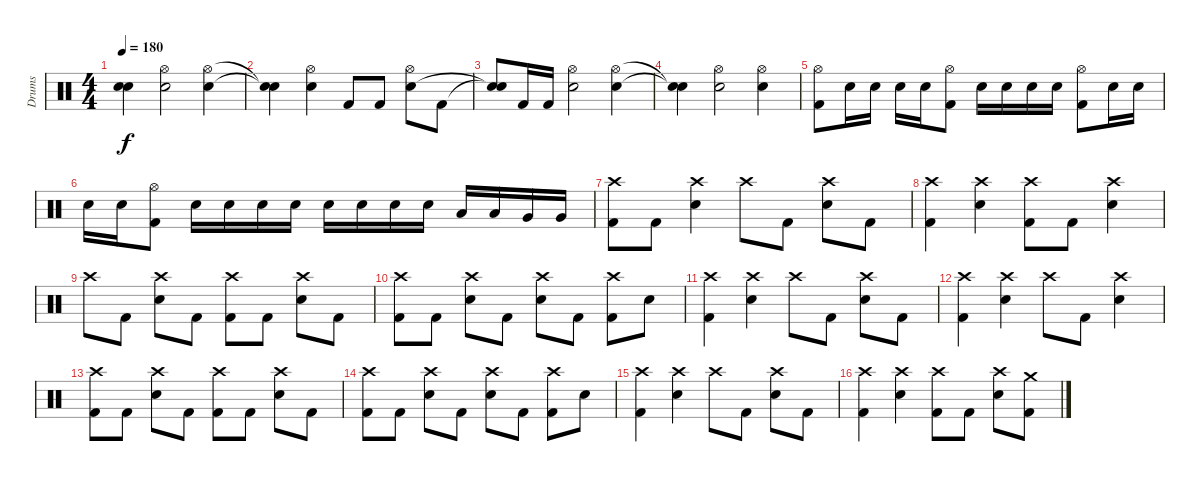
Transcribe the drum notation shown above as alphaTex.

\track ("Drums" "Drums") {instrument percussion}
\staff {score}
\articulation defaults
\ts (4 4)
\tempo 180
\clef neutral
\ks c
("Snare (hit)"{t} "Snare (hit)"{t}).4{dy f} ("Hi-Hat (open)" "Electric Snare (hit)").2 ("Hi-Hat (open)" "Electric Snare (hit)").4 |
("Snare (hit)"{t} "Snare (hit)"{t}).4 ("Hi-Hat (open)" "Electric Snare (hit)").4 "Kick (hit) 2".8 "Kick (hit) 2".8 ("Hi-Hat (open)" "Electric Snare (hit)").8 "Kick (hit) 2".8 |
("Snare (hit)"{t} "Snare (hit)"{t}).8 "Kick (hit) 2".16 "Kick (hit) 2".16 ("Hi-Hat (open)" "Electric Snare (hit)").2 ("Hi-Hat (open)" "Electric Snare (hit)").4 |
("Snare (hit)"{t} "Snare (hit)"{t}).4 ("Hi-Hat (open)" "Electric Snare (hit)").2 ("Hi-Hat (open)" "Electric Snare (hit)").4 |
("Hi-Hat (open)" "Kick (hit) 2").8 "Electric Snare (hit)".16 "Electric Snare (hit)".16 "Electric Snare (hit)".16 "Electric Snare (hit)".16 ("Hi-Hat (open)" "Kick (hit) 2").8 "Electric Snare (hit)".16 "Electric Snare (hit)".16 "Electric Snare (hit)".16 "Electric Snare (hit)".16 ("Hi-Hat (open)" "Kick (hit) 2").8 "Electric Snare (hit)".16 "Electric Snare (hit)".16 |
"Electric Snare (hit)".16 "Electric Snare (hit)".16 ("Hi-Hat (open)" "Kick (hit) 2").8 "Electric Snare (hit)".16 "Electric Snare (hit)".16 "Electric Snare (hit)".16 "Electric Snare (hit)".16 "Electric Snare (hit)".16 "Electric Snare (hit)".16 "Electric Snare (hit)".16 "Electric Snare (hit)".16 "Low Tom (hit)".16 "Low Tom (hit)".16 "Very Low Tom (hit)".16 "Very Low Tom (hit)".16 |
("Crash high (hit)" "Kick (hit) 2").8 "Kick (hit) 2".8 ("Crash high (hit)" "Electric Snare (hit)").4 "Crash high (hit)".8 "Kick (hit) 2".8 ("Crash high (hit)" "Electric Snare (hit)").8 "Kick (hit) 2".8 |
("Crash high (hit)" "Kick (hit) 2").4 ("Crash high (hit)" "Electric Snare (hit)").4 ("Crash high (hit)" "Kick (hit) 2").8 "Kick (hit) 2".8 ("Crash high (hit)" "Electric Snare (hit)").4 |
"Crash high (hit)".8 "Kick (hit) 2".8 ("Crash high (hit)" "Electric Snare (hit)").8 "Kick (hit) 2".8 ("Crash high (hit)" "Kick (hit) 2").8 "Kick (hit) 2".8 ("Crash high (hit)" "Electric Snare (hit)").8 "Kick (hit) 2".8 |
("Crash high (hit)" "Kick (hit) 2").8 "Kick (hit) 2".8 ("Crash high (hit)" "Electric Snare (hit)").8 "Kick (hit) 2".8 ("Crash high (hit)" "Electric Snare (hit)").8 "Kick (hit) 2".8 ("Crash high (hit)" "Kick (hit) 2").8 "Electric Snare (hit)".8 |
("Crash high (hit)" "Kick (hit) 2").4 ("Crash high (hit)" "Electric Snare (hit)").4 "Crash high (hit)".8 "Kick (hit) 2".8 ("Crash high (hit)" "Electric Snare (hit)").8 "Kick (hit) 2".8 |
("Crash high (hit)" "Kick (hit) 2").4 ("Crash high (hit)" "Electric Snare (hit)").4 "Crash high (hit)".8 "Kick (hit) 2".8 ("Crash high (hit)" "Electric Snare (hit)").4 |
("Crash high (hit)" "Kick (hit) 2").8 "Kick (hit) 2".8 ("Crash high (hit)" "Electric Snare (hit)").8 "Kick (hit) 2".8 ("Crash high (hit)" "Kick (hit) 2").8 "Kick (hit) 2".8 ("Crash high (hit)" "Electric Snare (hit)").8 "Kick (hit) 2".8 |
("Crash high (hit)" "Kick (hit) 2").8 "Kick (hit) 2".8 ("Crash high (hit)" "Electric Snare (hit)").8 "Kick (hit) 2".8 ("Crash high (hit)" "Electric Snare (hit)").8 "Kick (hit) 2".8 ("Crash high (hit)" "Kick (hit) 2").8 "Electric Snare (hit)".8 |
("Crash high (hit)" "Kick (hit) 2").4 ("Crash high (hit)" "Electric Snare (hit)").4 "Crash high (hit)".8 "Kick (hit) 2".8 ("Crash high (hit)" "Electric Snare (hit)").8 "Kick (hit) 2".8 |
("Crash high (hit)" "Kick (hit) 2").4 ("Crash high (hit)" "Electric Snare (hit)").4 ("Crash high (hit)" "Kick (hit) 2").8 "Kick (hit) 2".8 ("Crash high (hit)" "Electric Snare (hit)").8 ("Crash medium (hit)" "Kick (hit) 2").8
